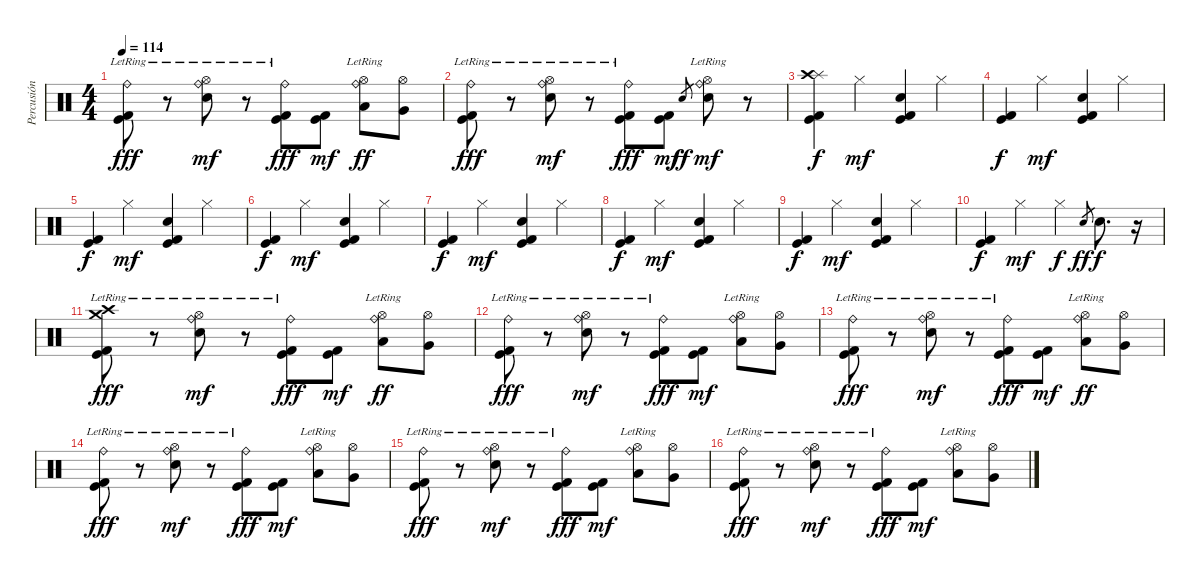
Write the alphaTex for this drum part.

\track ("Percusión" "Percusión") {instrument percussion}
\staff {score}
\articulation defaults
\ts (4 4)
\tempo 114
\clef neutral
\ks c
("Ride (bell)"{lr} "Kick (hit) 2" "Kick (hit)").8{dy fff} r.8 ("Ride (bell)"{lr} "Hi-Hat (open)" "Electric Snare (hit)").8{dy mf} r.8 ("Ride (bell)"{lr} "Kick (hit) 2" "Kick (hit)").8{dy fff} ("Kick (hit) 2" "Kick (hit)").8{dy mf} ("Ride (bell)"{lr} "Hi-Hat (open)" "Low Tom (hit)").8{dy ff} ("Hi-Hat (open)" "Very Low Tom (hit)").8 |
("Ride (bell)"{lr} "Kick (hit) 2" "Kick (hit)").8{dy fff} r.8 ("Ride (bell)"{lr} "Hi-Hat (open)" "Electric Snare (hit)").8{dy mf} r.8 ("Ride (bell)"{lr} "Kick (hit) 2" "Kick (hit)").8{dy fff} ("Kick (hit) 2" "Kick (hit)").8{dy mf} "Electric Snare (hit)".8{gr dy ff} ("Ride (bell)"{lr} "Hi-Hat (open)" "Electric Snare (hit)").8{dy mf} r.8 |
("Splash (hit)" "Crash high (hit)" "Kick (hit) 2" "Kick (hit)").4{dy f} "Hi-Hat (closed)".4{dy mf} ("Electric Snare (hit)" "Kick (hit) 2" "Kick (hit)").4 "Hi-Hat (closed)".4 |
("Kick (hit) 2" "Kick (hit)").4{dy f} "Hi-Hat (closed)".4{dy mf} ("Electric Snare (hit)" "Kick (hit) 2" "Kick (hit)").4 "Hi-Hat (closed)".4 |
("Kick (hit) 2" "Kick (hit)").4{dy f} "Hi-Hat (closed)".4{dy mf} ("Electric Snare (hit)" "Kick (hit) 2" "Kick (hit)").4 "Hi-Hat (closed)".4 |
("Kick (hit) 2" "Kick (hit)").4{dy f} "Hi-Hat (closed)".4{dy mf} ("Electric Snare (hit)" "Kick (hit) 2" "Kick (hit)").4 "Hi-Hat (closed)".4 |
("Kick (hit) 2" "Kick (hit)").4{dy f} "Hi-Hat (closed)".4{dy mf} ("Electric Snare (hit)" "Kick (hit) 2" "Kick (hit)").4 "Hi-Hat (closed)".4 |
("Kick (hit) 2" "Kick (hit)").4{dy f} "Hi-Hat (closed)".4{dy mf} ("Electric Snare (hit)" "Kick (hit) 2" "Kick (hit)").4 "Hi-Hat (closed)".4 |
("Kick (hit) 2" "Kick (hit)").4{dy f} "Hi-Hat (closed)".4{dy mf} ("Electric Snare (hit)" "Kick (hit) 2" "Kick (hit)").4 "Hi-Hat (closed)".4 |
("Kick (hit) 2" "Kick (hit)").4{dy f} "Hi-Hat (closed)".4{dy mf} "Hi-Hat (closed)".4{dy f} "Electric Snare (hit)".8{gr dy ff} "Electric Snare (hit)".8{d dy f} r.16 |
("Crash medium (hit)"{lr} "Crash high (hit)" "Kick (hit) 2" "Kick (hit)").8{dy fff} r.8 ("Ride (bell)"{lr} "Hi-Hat (open)" "Electric Snare (hit)").8{dy mf} r.8 ("Ride (bell)"{lr} "Kick (hit) 2" "Kick (hit)").8{dy fff} ("Kick (hit) 2" "Kick (hit)").8{dy mf} ("Ride (bell)"{lr} "Hi-Hat (open)" "Low Tom (hit)").8{dy ff} ("Hi-Hat (open)" "Very Low Tom (hit)").8 |
("Ride (bell)"{lr} "Kick (hit) 2" "Kick (hit)").8{dy fff} r.8 ("Ride (bell)"{lr} "Hi-Hat (open)" "Electric Snare (hit)").8{dy mf} r.8 ("Ride (bell)"{lr} "Kick (hit) 2" "Kick (hit)").8{dy fff} ("Kick (hit) 2" "Kick (hit)").8{dy mf} ("Ride (bell)"{lr} "Hi-Hat (open)" "Low Tom (hit)").8 ("Hi-Hat (open)" "Very Low Tom (hit)").8 |
("Ride (bell)"{lr} "Kick (hit) 2" "Kick (hit)").8{dy fff} r.8 ("Ride (bell)"{lr} "Hi-Hat (open)" "Electric Snare (hit)").8{dy mf} r.8 ("Ride (bell)"{lr} "Kick (hit) 2" "Kick (hit)").8{dy fff} ("Kick (hit) 2" "Kick (hit)").8{dy mf} ("Ride (bell)"{lr} "Hi-Hat (open)" "Low Tom (hit)").8{dy ff} ("Hi-Hat (open)" "Very Low Tom (hit)").8 |
("Ride (bell)"{lr} "Kick (hit) 2" "Kick (hit)").8{dy fff} r.8 ("Ride (bell)"{lr} "Hi-Hat (open)" "Electric Snare (hit)").8{dy mf} r.8 ("Ride (bell)"{lr} "Kick (hit) 2" "Kick (hit)").8{dy fff} ("Kick (hit) 2" "Kick (hit)").8{dy mf} ("Ride (bell)"{lr} "Hi-Hat (open)" "Low Tom (hit)").8 ("Hi-Hat (open)" "Very Low Tom (hit)").8 |
("Ride (bell)"{lr} "Kick (hit) 2" "Kick (hit)").8{dy fff} r.8 ("Ride (bell)"{lr} "Hi-Hat (open)" "Electric Snare (hit)").8{dy mf} r.8 ("Ride (bell)"{lr} "Kick (hit) 2" "Kick (hit)").8{dy fff} ("Kick (hit) 2" "Kick (hit)").8{dy mf} ("Ride (bell)"{lr} "Hi-Hat (open)" "Low Tom (hit)").8 ("Hi-Hat (open)" "Very Low Tom (hit)").8 |
("Ride (bell)"{lr} "Kick (hit) 2" "Kick (hit)").8{dy fff} r.8 ("Ride (bell)"{lr} "Hi-Hat (open)" "Electric Snare (hit)").8{dy mf} r.8 ("Ride (bell)"{lr} "Kick (hit) 2" "Kick (hit)").8{dy fff} ("Kick (hit) 2" "Kick (hit)").8{dy mf} ("Ride (bell)"{lr} "Hi-Hat (open)" "Low Tom (hit)").8 ("Hi-Hat (open)" "Very Low Tom (hit)").8
